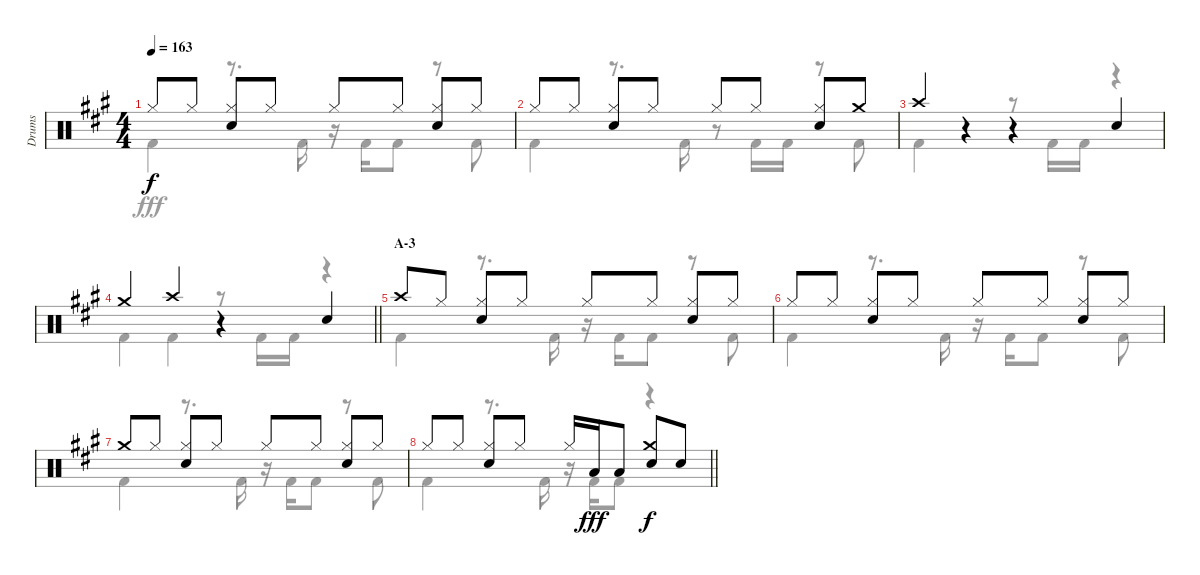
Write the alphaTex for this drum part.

\track ("Drums" "Drums") {instrument percussion}
\staff {score}
\articulation defaults
\voice
\ts (4 4)
\tempo 163
\clef neutral
\ks a "Hi-Hat (closed)".8{dy f} "Hi-Hat (closed)".8
("Hi-Hat (closed)" "Snare (hit) 2").8 "Hi-Hat (closed)".8 "Hi-Hat (closed)".8 "Hi-Hat (closed)".8 ("Hi-Hat (closed)" "Snare (hit) 2").8 "Hi-Hat (closed)".8 |
"Hi-Hat (closed)".8 "Hi-Hat (closed)".8 ("Hi-Hat (closed)" "Snare (hit) 2").8 "Hi-Hat (closed)".8 "Hi-Hat (closed)".8 "Hi-Hat (closed)".8 ("Hi-Hat (closed)" "Snare (hit) 2").8 "Crash medium (hit)".8 |
"Crash high (hit)".4 r.4 r.4 "Snare (hit) 2".4 |
\barLineRight lightlight "Crash medium (hit)".4 "Crash high (hit)".4
r.4 "Snare (hit) 2".4 |
\section ("" "A-3")
"Crash high (hit)".8 "Hi-Hat (closed)".8 ("Hi-Hat (closed)" "Snare (hit) 2").8 "Hi-Hat (closed)".8 "Hi-Hat (closed)".8 "Hi-Hat (closed)".8 ("Hi-Hat (closed)" "Snare (hit) 2").8 "Hi-Hat (closed)".8 |
"Hi-Hat (closed)".8 "Hi-Hat (closed)".8 ("Hi-Hat (closed)" "Snare (hit) 2").8 "Hi-Hat (closed)".8 "Hi-Hat (closed)".8 "Hi-Hat (closed)".8 ("Hi-Hat (closed)" "Snare (hit) 2").8 "Hi-Hat (closed)".8 |
"Crash medium (hit)".8 "Hi-Hat (closed)".8 ("Hi-Hat (closed)" "Snare (hit) 2").8 "Hi-Hat (closed)".8 "Hi-Hat (closed)".8 "Hi-Hat (closed)".8 ("Hi-Hat (closed)" "Snare (hit) 2").8 "Hi-Hat (closed)".8 |
\barLineRight lightlight "Hi-Hat (closed)".8 "Hi-Hat (closed)".8
("Hi-Hat (closed)" "Snare (hit) 2").8 "Hi-Hat (closed)".8 "Hi-Hat (closed)".16 "Low Tom (hit)".16{dy fff} "Low Tom (hit)".8 ("Crash medium (hit)" "Snare (hit) 2").8{dy f} "Snare (hit) 2".8
\voice
\clef neutral
\ottava regular
\simile none
\ks a "Kick (hit) 2".4{dy fff}
r.8{d} "Kick (hit) 2".16 r.16 "Kick (hit) 2".16 "Kick (hit) 2".8 r.8 "Kick (hit) 2".8 |
"Kick (hit) 2".4 r.8{d} "Kick (hit) 2".16 r.8 "Kick (hit) 2".16 "Kick (hit) 2".16 r.8 "Kick (hit) 2".8 |
"Kick (hit) 2".4 r.4 r.8 "Kick (hit) 2".16 "Kick (hit) 2".16 r.4 |
\barLineRight lightlight "Kick (hit) 2".4 "Kick (hit) 2".4
r.8 "Kick (hit) 2".16 "Kick (hit) 2".16 r.4 |
"Kick (hit) 2".4 r.8{d} "Kick (hit) 2".16 r.16 "Kick (hit) 2".16 "Kick (hit) 2".8 r.8 "Kick (hit) 2".8 |
"Kick (hit) 2".4 r.8{d} "Kick (hit) 2".16 r.16 "Kick (hit) 2".16 "Kick (hit) 2".8 r.8 "Kick (hit) 2".8 |
"Kick (hit) 2".4 r.8{d} "Kick (hit) 2".16 r.16 "Kick (hit) 2".16 "Kick (hit) 2".8 r.8 "Kick (hit) 2".8 |
\barLineRight lightlight "Kick (hit) 2".4
r.8{d} "Kick (hit) 2".16 r.16 "Kick (hit) 2".16 "Kick (hit) 2".8 r.4
